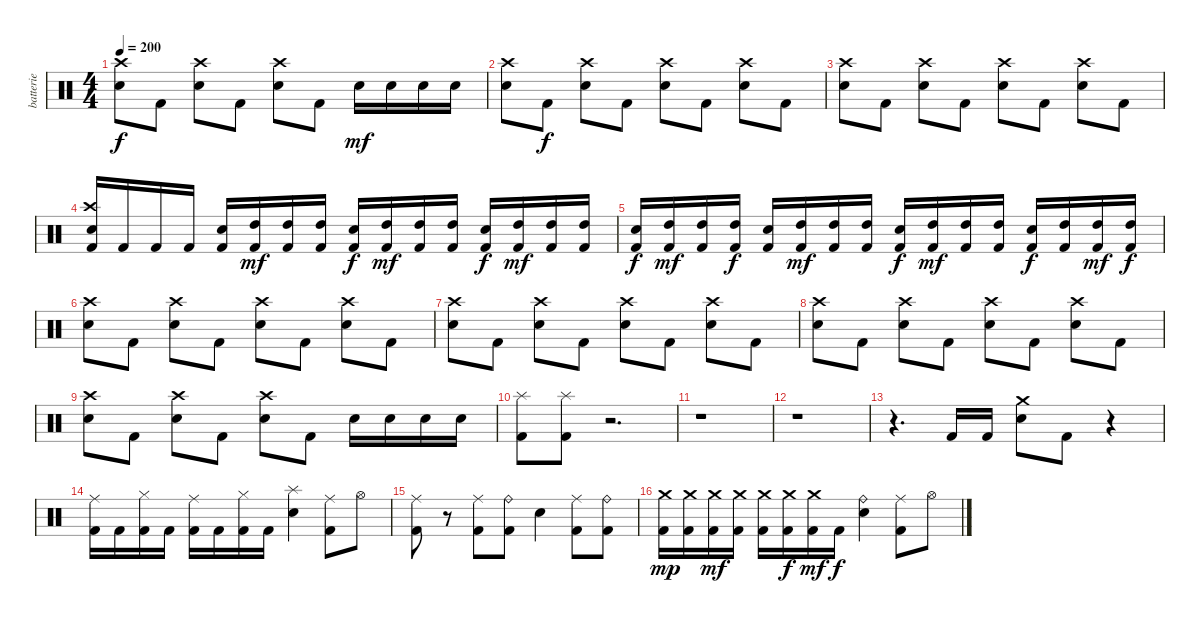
\track ("batterie" "batterie") {instrument percussion}
\staff {score}
\articulation defaults
\ts (4 4)
\tempo 200
\clef neutral
\ks c
("Electric Snare (hit)" "Crash high (hit)").8{dy f} "Kick (hit) 2".8 ("Electric Snare (hit)" "Crash high (hit)").8 "Kick (hit) 2".8 ("Electric Snare (hit)" "Crash high (hit)").8 "Kick (hit) 2".8 "Electric Snare (hit)".16{dy mf} "Electric Snare (hit)".16 "Electric Snare (hit)".16 "Electric Snare (hit)".16 |
("Electric Snare (hit)" "Crash high (hit)").8 "Kick (hit) 2".8{dy f} ("Electric Snare (hit)" "Crash high (hit)").8 "Kick (hit) 2".8 ("Electric Snare (hit)" "Crash high (hit)").8 "Kick (hit) 2".8 ("Electric Snare (hit)" "Crash high (hit)").8 "Kick (hit) 2".8 |
("Electric Snare (hit)" "Crash high (hit)").8 "Kick (hit) 2".8 ("Electric Snare (hit)" "Crash high (hit)").8 "Kick (hit) 2".8 ("Electric Snare (hit)" "Crash high (hit)").8 "Kick (hit) 2".8 ("Electric Snare (hit)" "Crash high (hit)").8 "Kick (hit) 2".8 |
("Kick (hit) 2" "Electric Snare (hit)" "Crash high (hit)").16 "Kick (hit) 2".16 "Kick (hit) 2".16 "Kick (hit) 2".16 ("Kick (hit) 2" "Electric Snare (hit)").16 ("Kick (hit) 2" "High Tom (hit)").16{dy mf} ("Kick (hit) 2" "High Tom (hit)").16 ("Kick (hit) 2" "High Tom (hit)").16 ("Kick (hit) 2" "Electric Snare (hit)").16{dy f} ("Kick (hit) 2" "High Tom (hit)").16{dy mf} ("Kick (hit) 2" "High Tom (hit)").16 ("Kick (hit) 2" "High Tom (hit)").16 ("Kick (hit) 2" "Electric Snare (hit)").16{dy f} ("Kick (hit) 2" "High Tom (hit)").16{dy mf} ("Kick (hit) 2" "High Tom (hit)").16 ("Kick (hit) 2" "High Tom (hit)").16 |
("Kick (hit) 2" "Electric Snare (hit)").16{dy f} ("Kick (hit) 2" "High Tom (hit)").16{dy mf} ("Kick (hit) 2" "High Tom (hit)").16 ("Kick (hit) 2" "High Tom (hit)").16{dy f} ("Kick (hit) 2" "Electric Snare (hit)").16 ("Kick (hit) 2" "High Tom (hit)").16{dy mf} ("Kick (hit) 2" "High Tom (hit)").16 ("Kick (hit) 2" "High Tom (hit)").16 ("Kick (hit) 2" "Electric Snare (hit)").16{dy f} ("Kick (hit) 2" "High Tom (hit)").16{dy mf} ("Kick (hit) 2" "High Tom (hit)").16 ("Kick (hit) 2" "High Tom (hit)").16 ("Kick (hit) 2" "Electric Snare (hit)").16{dy f} ("Kick (hit) 2" "High Tom (hit)").16 ("Kick (hit) 2" "High Tom (hit)").16{dy mf} ("Kick (hit) 2" "High Tom (hit)").16{dy f} |
("Electric Snare (hit)" "Crash high (hit)").8 "Kick (hit) 2".8 ("Electric Snare (hit)" "Crash high (hit)").8 "Kick (hit) 2".8 ("Electric Snare (hit)" "Crash high (hit)").8 "Kick (hit) 2".8 ("Electric Snare (hit)" "Crash high (hit)").8 "Kick (hit) 2".8 |
("Electric Snare (hit)" "Crash high (hit)").8 "Kick (hit) 2".8 ("Electric Snare (hit)" "Crash high (hit)").8 "Kick (hit) 2".8 ("Electric Snare (hit)" "Crash high (hit)").8 "Kick (hit) 2".8 ("Electric Snare (hit)" "Crash high (hit)").8 "Kick (hit) 2".8 |
("Electric Snare (hit)" "Crash high (hit)").8 "Kick (hit) 2".8 ("Electric Snare (hit)" "Crash high (hit)").8 "Kick (hit) 2".8 ("Electric Snare (hit)" "Crash high (hit)").8 "Kick (hit) 2".8 ("Electric Snare (hit)" "Crash high (hit)").8 "Kick (hit) 2".8 |
("Electric Snare (hit)" "Crash high (hit)").8 "Kick (hit) 2".8 ("Electric Snare (hit)" "Crash high (hit)").8 "Kick (hit) 2".8 ("Electric Snare (hit)" "Crash high (hit)").8 "Kick (hit) 2".8 "Electric Snare (hit)".16 "Electric Snare (hit)".16 "Electric Snare (hit)".16 "Electric Snare (hit)".16 |
("Kick (hit) 2" "Splash (hit)").8 ("Kick (hit) 2" "Splash (hit)").8 r.2{d} |
r.1 |
r.1 |
r.4{d} "Kick (hit) 2".16 "Kick (hit) 2".16 ("Electric Snare (hit)" "Crash medium (hit)").8 "Kick (hit) 2".8 r.4 |
("Kick (hit) 2" "Ride (middle)").16 "Kick (hit) 2".16 ("Kick (hit) 2" "Hi-Hat (closed)").16 "Kick (hit) 2".16 ("Kick (hit) 2" "Ride (middle)").16 "Kick (hit) 2".16 ("Kick (hit) 2" "Hi-Hat (closed)").16 "Kick (hit) 2".16 ("Electric Snare (hit)" "Splash (hit)").4 ("Kick (hit) 2" "Ride (middle)").8 "Hi-Hat (open)".8 |
("Kick (hit) 2" "Ride (middle)").8 r.8 ("Kick (hit) 2" "Ride (middle)").8 ("Kick (hit) 2" "Ride (bell)").8 "Electric Snare (hit)".4 ("Kick (hit) 2" "Ride (middle)").8 ("Kick (hit) 2" "Ride (bell)").8 |
("Kick (hit) 2" "Crash medium (hit)").16{dy mp} ("Kick (hit) 2" "Crash medium (hit)").16 ("Kick (hit) 2" "Crash medium (hit)").16{dy mf} ("Kick (hit) 2" "Crash medium (hit)").16 ("Kick (hit) 2" "Crash medium (hit)").16 ("Kick (hit) 2" "Crash medium (hit)").16{dy f} ("Kick (hit) 2" "Crash medium (hit)").16{dy mf} "Kick (hit) 2".16{dy f} ("Electric Snare (hit)" "Ride (bell)").4 ("Kick (hit) 2" "Ride (middle)").8 "Hi-Hat (open)".8
